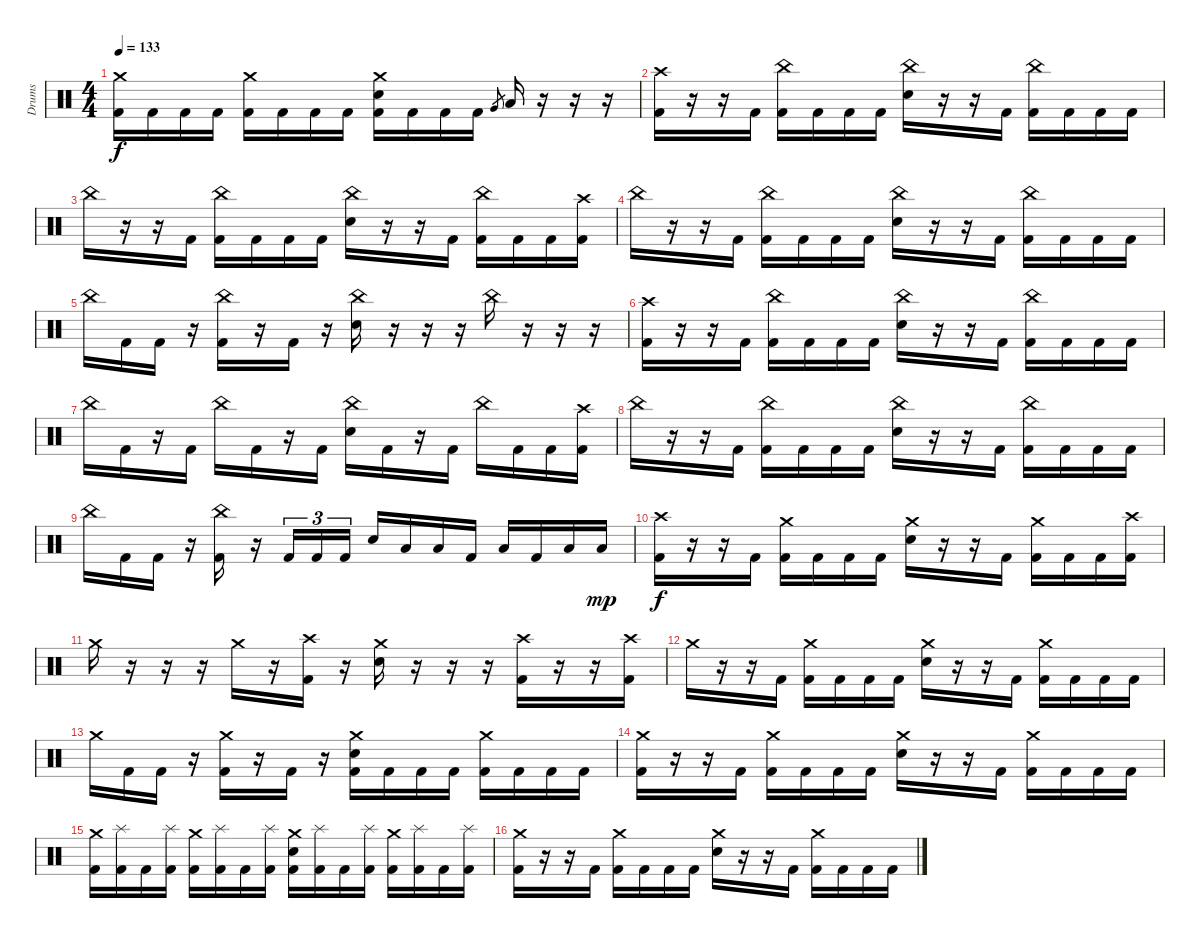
\track ("Drums" "Drums") {instrument percussion}
\staff {score}
\articulation defaults
\ts (4 4)
\tempo 133
\clef neutral
\ks c
("Crash medium (hit)" "Kick (hit) 2").16{dy f} "Kick (hit) 2".16 "Kick (hit) 2".16 "Kick (hit) 2".16 ("Crash medium (hit)" "Kick (hit) 2").16 "Kick (hit) 2".16 "Kick (hit) 2".16 "Kick (hit) 2".16 ("Crash medium (hit)" "Snare (hit) 2" "Kick (hit) 2").16 "Kick (hit) 2".16 "Kick (hit) 2".16 "Kick (hit) 2".16 "Very Low Tom (hit)".8{gr} "Low Floor Tom (hit)".16 r.16 r.16 r.16 |
("Crash high (hit)" "Kick (hit) 2").16 r.16 r.16 "Kick (hit) 2".16 ("China (hit)" "Kick (hit) 2").16 "Kick (hit) 2".16 "Kick (hit) 2".16 "Kick (hit) 2".16 ("China (hit)" "Snare (hit) 2").16 r.16 r.16 "Kick (hit) 2".16 ("China (hit)" "Kick (hit) 2").16 "Kick (hit) 2".16 "Kick (hit) 2".16 "Kick (hit) 2".16 |
"China (hit)".16 r.16 r.16 "Kick (hit) 2".16 ("China (hit)" "Kick (hit) 2").16 "Kick (hit) 2".16 "Kick (hit) 2".16 "Kick (hit) 2".16 ("China (hit)" "Snare (hit) 2").16 r.16 r.16 "Kick (hit) 2".16 ("China (hit)" "Kick (hit) 2").16 "Kick (hit) 2".16 "Kick (hit) 2".16 ("Crash high (hit)" "Kick (hit) 2").16 |
"China (hit)".16 r.16 r.16 "Kick (hit) 2".16 ("China (hit)" "Kick (hit) 2").16 "Kick (hit) 2".16 "Kick (hit) 2".16 "Kick (hit) 2".16 ("China (hit)" "Snare (hit) 2").16 r.16 r.16 "Kick (hit) 2".16 ("China (hit)" "Kick (hit) 2").16 "Kick (hit) 2".16 "Kick (hit) 2".16 "Kick (hit) 2".16 |
"China (hit)".16 "Kick (hit) 2".16 "Kick (hit) 2".16 r.16 ("China (hit)" "Kick (hit) 2").16 r.16 "Kick (hit) 2".16 r.16 ("China (hit)" "Snare (hit) 2").16 r.16 r.16 r.16 "China (hit)".16 r.16 r.16 r.16 |
("Crash high (hit)" "Kick (hit) 2").16 r.16 r.16 "Kick (hit) 2".16 ("China (hit)" "Kick (hit) 2").16 "Kick (hit) 2".16 "Kick (hit) 2".16 "Kick (hit) 2".16 ("China (hit)" "Snare (hit) 2").16 r.16 r.16 "Kick (hit) 2".16 ("China (hit)" "Kick (hit) 2").16 "Kick (hit) 2".16 "Kick (hit) 2".16 "Kick (hit) 2".16 |
"China (hit)".16 "Kick (hit) 2".16 r.16 "Kick (hit) 2".16 "China (hit)".16 "Kick (hit) 2".16 r.16 "Kick (hit) 2".16 ("China (hit)" "Snare (hit) 2").16 "Kick (hit) 2".16 r.16 "Kick (hit) 2".16 "China (hit)".16 "Kick (hit) 2".16 "Kick (hit) 2".16 ("Crash high (hit)" "Kick (hit) 2").16 |
"China (hit)".16 r.16 r.16 "Kick (hit) 2".16 ("China (hit)" "Kick (hit) 2").16 "Kick (hit) 2".16 "Kick (hit) 2".16 "Kick (hit) 2".16 ("China (hit)" "Snare (hit) 2").16 r.16 r.16 "Kick (hit) 2".16 ("China (hit)" "Kick (hit) 2").16 "Kick (hit) 2".16 "Kick (hit) 2".16 "Kick (hit) 2".16 |
"China (hit)".16 "Kick (hit) 2".16 "Kick (hit) 2".16 r.16 ("China (hit)" "Kick (hit) 2").16 r.16 "Kick (hit) 2".16{tu (3 2)} "Kick (hit) 2".16{tu (3 2)} "Kick (hit) 2".16{tu (3 2)} "Snare (hit) 2".16 "Low Tom (hit)".16 "Low Floor Tom (hit)".16 "Kick (hit) 2".16 "Low Floor Tom (hit)".16 "Kick (hit) 2".16 "Low Floor Tom (hit)".16 "Low Floor Tom (hit)".16{dy mp} |
("Crash high (hit)" "Kick (hit) 2").16{dy f} r.16 r.16 "Kick (hit) 2".16 ("Crash medium (hit)" "Kick (hit) 2").16 "Kick (hit) 2".16 "Kick (hit) 2".16 "Kick (hit) 2".16 ("Crash medium (hit)" "Snare (hit) 2").16 r.16 r.16 "Kick (hit) 2".16 ("Crash medium (hit)" "Kick (hit) 2").16 "Kick (hit) 2".16 "Kick (hit) 2".16 ("Crash high (hit)" "Kick (hit) 2").16 |
"Crash medium (hit)".16 r.16 r.16 r.16 "Crash medium (hit)".16 r.16 ("Crash high (hit)" "Kick (hit) 2").16 r.16 ("Crash medium (hit)" "Snare (hit) 2").16 r.16 r.16 r.16 ("Crash high (hit)" "Kick (hit) 2").16 r.16 r.16 ("Crash high (hit)" "Kick (hit) 2").16 |
"Crash medium (hit)".16 r.16 r.16 "Kick (hit) 2".16 ("Crash medium (hit)" "Kick (hit) 2").16 "Kick (hit) 2".16 "Kick (hit) 2".16 "Kick (hit) 2".16 ("Crash medium (hit)" "Snare (hit) 2").16 r.16 r.16 "Kick (hit) 2".16 ("Crash medium (hit)" "Kick (hit) 2").16 "Kick (hit) 2".16 "Kick (hit) 2".16 "Kick (hit) 2".16 |
"Crash medium (hit)".16 "Kick (hit) 2".16 "Kick (hit) 2".16 r.16 ("Crash medium (hit)" "Kick (hit) 2").16 r.16 "Kick (hit) 2".16 r.16 ("Crash medium (hit)" "Snare (hit) 2" "Kick (hit) 2").16 "Kick (hit) 2".16 "Kick (hit) 2".16 "Kick (hit) 2".16 ("Crash medium (hit)" "Kick (hit) 2").16 "Kick (hit) 2".16 "Kick (hit) 2".16 "Kick (hit) 2".16 |
("Crash medium (hit)" "Kick (hit) 2").16 r.16 r.16 "Kick (hit) 2".16 ("Crash medium (hit)" "Kick (hit) 2").16 "Kick (hit) 2".16 "Kick (hit) 2".16 "Kick (hit) 2".16 ("Crash medium (hit)" "Snare (hit) 2").16 r.16 r.16 "Kick (hit) 2".16 ("Crash medium (hit)" "Kick (hit) 2").16 "Kick (hit) 2".16 "Kick (hit) 2".16 "Kick (hit) 2".16 |
("Crash medium (hit)" "Kick (hit) 2").16 ("Splash (hit)" "Kick (hit) 2").16 "Kick (hit) 2".16 ("Splash (hit)" "Kick (hit) 2").16 ("Crash medium (hit)" "Kick (hit) 2").16 ("Splash (hit)" "Kick (hit) 2").16 "Kick (hit) 2".16 ("Splash (hit)" "Kick (hit) 2").16 ("Crash medium (hit)" "Snare (hit) 2" "Kick (hit) 2").16 ("Splash (hit)" "Kick (hit) 2").16 "Kick (hit) 2".16 ("Splash (hit)" "Kick (hit) 2").16 ("Crash medium (hit)" "Kick (hit) 2").16 ("Splash (hit)" "Kick (hit) 2").16 "Kick (hit) 2".16 ("Splash (hit)" "Kick (hit) 2").16 |
("Crash medium (hit)" "Kick (hit) 2").16 r.16 r.16 "Kick (hit) 2".16 ("Crash medium (hit)" "Kick (hit) 2").16 "Kick (hit) 2".16 "Kick (hit) 2".16 "Kick (hit) 2".16 ("Crash medium (hit)" "Snare (hit) 2").16 r.16 r.16 "Kick (hit) 2".16 ("Crash medium (hit)" "Kick (hit) 2").16 "Kick (hit) 2".16 "Kick (hit) 2".16 "Kick (hit) 2".16
